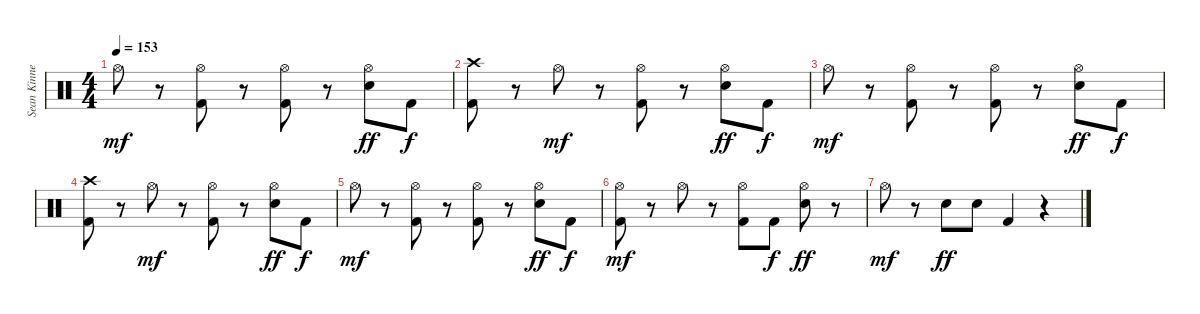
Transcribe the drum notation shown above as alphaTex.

\track ("Sean Kinney - Drums" "Sean Kinne") {instrument percussion}
\staff {score}
\articulation defaults
\ts (4 4)
\tempo 153
\clef neutral
\ks c "Hi-Hat (open)".8{dy mf}
r.8 ("Hi-Hat (open)" "Kick (hit) 2").8 r.8 ("Hi-Hat (open)" "Kick (hit) 2").8 r.8 ("Hi-Hat (open)" "Snare (hit) 2").8{dy ff} "Kick (hit) 2".8{dy f} |
("Crash high (hit)" "Kick (hit) 2").8 r.8 "Hi-Hat (open)".8{dy mf} r.8 ("Hi-Hat (open)" "Kick (hit) 2").8 r.8 ("Hi-Hat (open)" "Snare (hit) 2").8{dy ff} "Kick (hit) 2".8{dy f} |
"Hi-Hat (open)".8{dy mf} r.8 ("Hi-Hat (open)" "Kick (hit) 2").8 r.8 ("Hi-Hat (open)" "Kick (hit) 2").8 r.8 ("Hi-Hat (open)" "Snare (hit) 2").8{dy ff} "Kick (hit) 2".8{dy f} |
("Crash high (hit)" "Kick (hit) 2").8 r.8 "Hi-Hat (open)".8{dy mf} r.8 ("Hi-Hat (open)" "Kick (hit) 2").8 r.8 ("Hi-Hat (open)" "Snare (hit) 2").8{dy ff} "Kick (hit) 2".8{dy f} |
"Hi-Hat (open)".8{dy mf} r.8 ("Hi-Hat (open)" "Kick (hit) 2").8 r.8 ("Hi-Hat (open)" "Kick (hit) 2").8 r.8 ("Hi-Hat (open)" "Snare (hit) 2").8{dy ff} "Kick (hit) 2".8{dy f} |
("Hi-Hat (open)" "Kick (hit) 2").8{dy mf} r.8 "Hi-Hat (open)".8 r.8 ("Hi-Hat (open)" "Kick (hit) 2").8 "Kick (hit) 2".8{dy f} ("Hi-Hat (open)" "Snare (hit) 2").8{dy ff} r.8 |
"Hi-Hat (open)".8{dy mf} r.8 "Snare (hit) 2".8{dy ff} "Snare (hit) 2".8 "Kick (hit) 2".4 r.4
